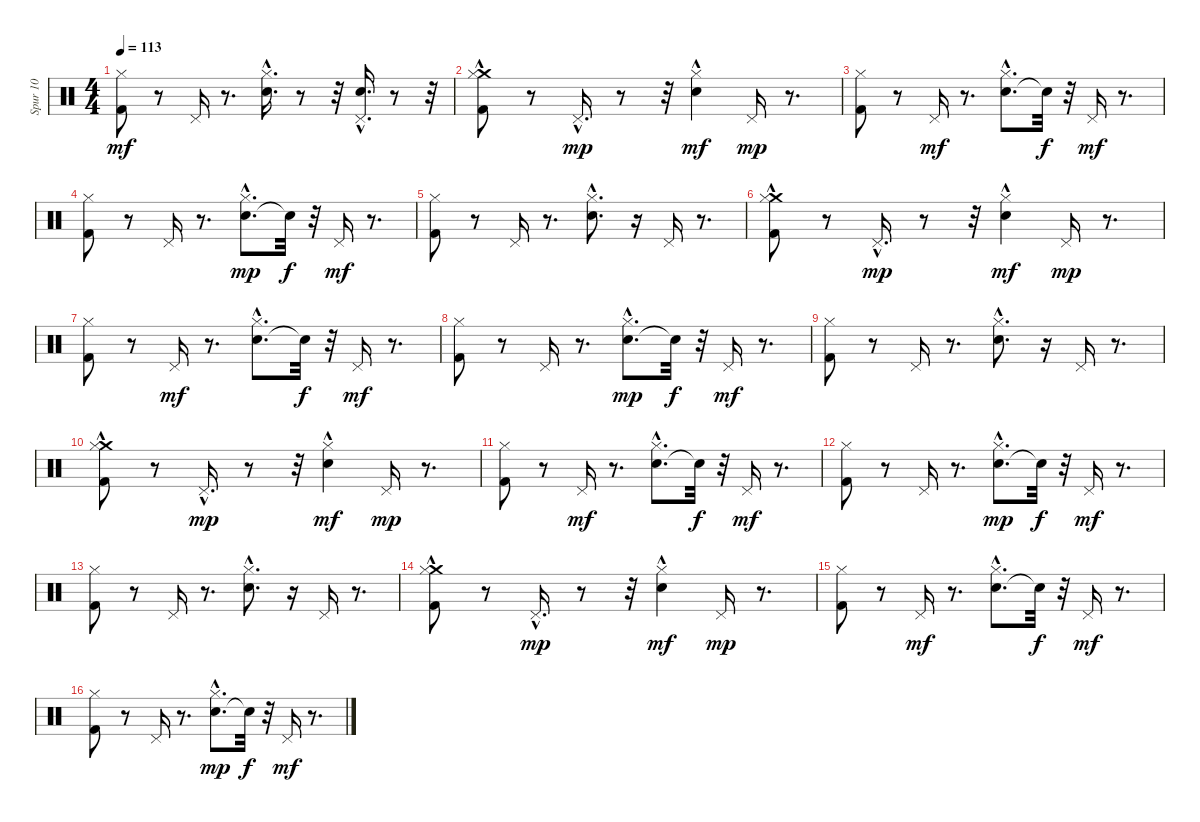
\track ("Spur 10" "Spur 10") {instrument percussion}
\staff {score}
\articulation defaults
\ts (4 4)
\tempo 113
\clef neutral
\ks c
("Kick (hit) 2" "Hi-Hat (closed)").8{dy mf} r.8 "Pedal Hi-Hat (hit)".16 r.8{d} ("Snare (hit) 2"{hac} "Hi-Hat (closed)").16{d} r.8 r.32 ("Snare (hit) 2"{hac} "Pedal Hi-Hat (hit)").16{d} r.8 r.32 |
("Kick (hit) 2" "Crash medium (hit)"{hac} "Hi-Hat (closed)"{hac}).8 r.8 "Pedal Hi-Hat (hit)"{hac}.16{d dy mp} r.8 r.32 ("Snare (hit) 2" "Hi-Hat (closed)"{hac}).4{dy mf} "Pedal Hi-Hat (hit)".16{dy mp} r.8{d} |
("Kick (hit) 2" "Hi-Hat (closed)").8 r.8 "Pedal Hi-Hat (hit)".16{dy mf} r.8{d} ("Snare (hit) 2"{hac} "Hi-Hat (closed)").8{d} "Snare (hit)"{t}.32{dy f} r.32 "Pedal Hi-Hat (hit)".16{dy mf} r.8{d} |
("Kick (hit) 2" "Hi-Hat (closed)").8 r.8 "Pedal Hi-Hat (hit)".16 r.8{d} ("Snare (hit) 2"{hac} "Hi-Hat (closed)").8{d dy mp} "Snare (hit)"{t}.32{dy f} r.32 "Pedal Hi-Hat (hit)".16{dy mf} r.8{d} |
("Kick (hit) 2" "Hi-Hat (closed)").8 r.8 "Pedal Hi-Hat (hit)".16 r.8{d} ("Snare (hit) 2"{hac} "Hi-Hat (closed)").8{d} r.16 "Pedal Hi-Hat (hit)".16 r.8{d} |
("Kick (hit) 2" "Crash medium (hit)"{hac} "Hi-Hat (closed)"{hac}).8 r.8 "Pedal Hi-Hat (hit)"{hac}.16{d dy mp} r.8 r.32 ("Snare (hit) 2" "Hi-Hat (closed)"{hac}).4{dy mf} "Pedal Hi-Hat (hit)".16{dy mp} r.8{d} |
("Kick (hit) 2" "Hi-Hat (closed)").8 r.8 "Pedal Hi-Hat (hit)".16{dy mf} r.8{d} ("Snare (hit) 2"{hac} "Hi-Hat (closed)").8{d} "Snare (hit)"{t}.32{dy f} r.32 "Pedal Hi-Hat (hit)".16{dy mf} r.8{d} |
("Kick (hit) 2" "Hi-Hat (closed)").8 r.8 "Pedal Hi-Hat (hit)".16 r.8{d} ("Snare (hit) 2"{hac} "Hi-Hat (closed)").8{d dy mp} "Snare (hit)"{t}.32{dy f} r.32 "Pedal Hi-Hat (hit)".16{dy mf} r.8{d} |
("Kick (hit) 2" "Hi-Hat (closed)").8 r.8 "Pedal Hi-Hat (hit)".16 r.8{d} ("Snare (hit) 2"{hac} "Hi-Hat (closed)").8{d} r.16 "Pedal Hi-Hat (hit)".16 r.8{d} |
("Kick (hit) 2" "Crash medium (hit)"{hac} "Hi-Hat (closed)"{hac}).8 r.8 "Pedal Hi-Hat (hit)"{hac}.16{d dy mp} r.8 r.32 ("Snare (hit) 2" "Hi-Hat (closed)"{hac}).4{dy mf} "Pedal Hi-Hat (hit)".16{dy mp} r.8{d} |
("Kick (hit) 2" "Hi-Hat (closed)").8 r.8 "Pedal Hi-Hat (hit)".16{dy mf} r.8{d} ("Snare (hit) 2"{hac} "Hi-Hat (closed)").8{d} "Snare (hit)"{t}.32{dy f} r.32 "Pedal Hi-Hat (hit)".16{dy mf} r.8{d} |
("Kick (hit) 2" "Hi-Hat (closed)").8 r.8 "Pedal Hi-Hat (hit)".16 r.8{d} ("Snare (hit) 2"{hac} "Hi-Hat (closed)").8{d dy mp} "Snare (hit)"{t}.32{dy f} r.32 "Pedal Hi-Hat (hit)".16{dy mf} r.8{d} |
("Kick (hit) 2" "Hi-Hat (closed)").8 r.8 "Pedal Hi-Hat (hit)".16 r.8{d} ("Snare (hit) 2"{hac} "Hi-Hat (closed)").8{d} r.16 "Pedal Hi-Hat (hit)".16 r.8{d} |
("Kick (hit) 2" "Crash medium (hit)"{hac} "Hi-Hat (closed)"{hac}).8 r.8 "Pedal Hi-Hat (hit)"{hac}.16{d dy mp} r.8 r.32 ("Snare (hit) 2" "Hi-Hat (closed)"{hac}).4{dy mf} "Pedal Hi-Hat (hit)".16{dy mp} r.8{d} |
("Kick (hit) 2" "Hi-Hat (closed)").8 r.8 "Pedal Hi-Hat (hit)".16{dy mf} r.8{d} ("Snare (hit) 2"{hac} "Hi-Hat (closed)").8{d} "Snare (hit)"{t}.32{dy f} r.32 "Pedal Hi-Hat (hit)".16{dy mf} r.8{d} |
("Kick (hit) 2" "Hi-Hat (closed)").8 r.8 "Pedal Hi-Hat (hit)".16 r.8{d} ("Snare (hit) 2"{hac} "Hi-Hat (closed)").8{d dy mp} "Snare (hit)"{t}.32{dy f} r.32 "Pedal Hi-Hat (hit)".16{dy mf} r.8{d}
